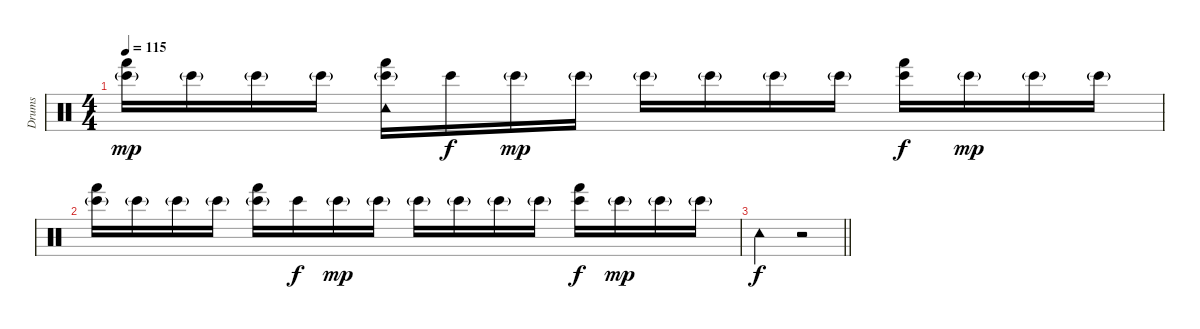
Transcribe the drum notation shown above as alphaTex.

\track ("Drums" "Drums") {instrument percussion}
\staff {score}
\articulation defaults
\ts (4 4)
\tempo 115
\clef neutral
\ks c
("Hand (hit)" "Bongo High (hit)"{g}).16{dy mp} "Bongo High (hit)"{g}.16 "Bongo High (hit)"{g}.16 "Bongo High (hit)"{g}.16 ("Tambourine (hit)" "Hand (hit)" "Bongo High (hit)"{g}).16 "Bongo High (hit)".16{dy f} "Bongo High (hit)"{g}.16{dy mp} "Bongo High (hit)"{g}.16 "Bongo High (hit)"{g}.16 "Bongo High (hit)"{g}.16 "Bongo High (hit)"{g}.16 "Bongo High (hit)"{g}.16 ("Hand (hit)" "Bongo High (hit)").16{dy f} "Bongo High (hit)"{g}.16{dy mp} "Bongo High (hit)"{g}.16 "Bongo High (hit)"{g}.16 |
("Hand (hit)" "Bongo High (hit)"{g}).16 "Bongo High (hit)"{g}.16 "Bongo High (hit)"{g}.16 "Bongo High (hit)"{g}.16 ("Hand (hit)" "Bongo High (hit)"{g}).16 "Bongo High (hit)".16{dy f} "Bongo High (hit)"{g}.16{dy mp} "Bongo High (hit)"{g}.16 "Bongo High (hit)"{g}.16 "Bongo High (hit)"{g}.16 "Bongo High (hit)"{g}.16 "Bongo High (hit)"{g}.16 ("Hand (hit)" "Bongo High (hit)").16{dy f} "Bongo High (hit)"{g}.16{dy mp} "Bongo High (hit)"{g}.16 "Bongo High (hit)"{g}.16 |
\barLineRight lightlight "Tambourine (hit)".2{dy f}
r.2
